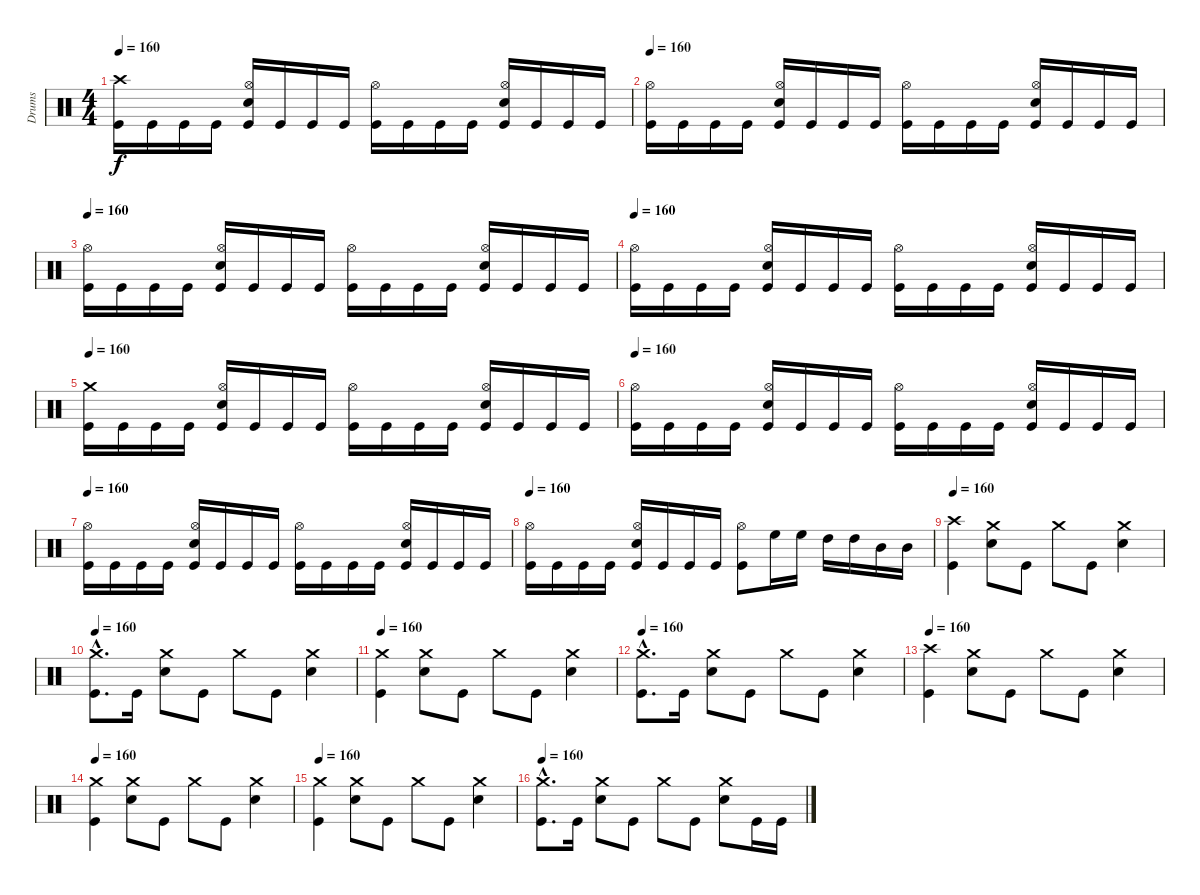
\track ("Drums" "Drums") {instrument percussion}
\staff {score}
\articulation defaults
\ts (4 4)
\tempo 160
\clef neutral
\ks c
("Crash high (hit)" "Kick (hit)").16{dy f} "Kick (hit)".16 "Kick (hit)".16 "Kick (hit)".16 ("Hi-Hat (open)" "Electric Snare (hit)" "Kick (hit)").16 "Kick (hit)".16 "Kick (hit)".16 "Kick (hit)".16 ("Hi-Hat (open)" "Kick (hit)").16 "Kick (hit)".16 "Kick (hit)".16 "Kick (hit)".16 ("Hi-Hat (open)" "Electric Snare (hit)" "Kick (hit)").16 "Kick (hit)".16 "Kick (hit)".16 "Kick (hit)".16 |
\tempo 160
("Hi-Hat (open)" "Kick (hit)").16 "Kick (hit)".16 "Kick (hit)".16 "Kick (hit)".16 ("Hi-Hat (open)" "Electric Snare (hit)" "Kick (hit)").16 "Kick (hit)".16 "Kick (hit)".16 "Kick (hit)".16 ("Hi-Hat (open)" "Kick (hit)").16 "Kick (hit)".16 "Kick (hit)".16 "Kick (hit)".16 ("Hi-Hat (open)" "Electric Snare (hit)" "Kick (hit)").16 "Kick (hit)".16 "Kick (hit)".16 "Kick (hit)".16 |
\tempo 160
("Hi-Hat (open)" "Kick (hit)").16 "Kick (hit)".16 "Kick (hit)".16 "Kick (hit)".16 ("Hi-Hat (open)" "Electric Snare (hit)" "Kick (hit)").16 "Kick (hit)".16 "Kick (hit)".16 "Kick (hit)".16 ("Hi-Hat (open)" "Kick (hit)").16 "Kick (hit)".16 "Kick (hit)".16 "Kick (hit)".16 ("Hi-Hat (open)" "Electric Snare (hit)" "Kick (hit)").16 "Kick (hit)".16 "Kick (hit)".16 "Kick (hit)".16 |
\tempo 160
("Hi-Hat (open)" "Kick (hit)").16 "Kick (hit)".16 "Kick (hit)".16 "Kick (hit)".16 ("Hi-Hat (open)" "Electric Snare (hit)" "Kick (hit)").16 "Kick (hit)".16 "Kick (hit)".16 "Kick (hit)".16 ("Hi-Hat (open)" "Kick (hit)").16 "Kick (hit)".16 "Kick (hit)".16 "Kick (hit)".16 ("Hi-Hat (open)" "Electric Snare (hit)" "Kick (hit)").16 "Kick (hit)".16 "Kick (hit)".16 "Kick (hit)".16 |
\tempo 160
("Crash medium (hit)" "Kick (hit)").16 "Kick (hit)".16 "Kick (hit)".16 "Kick (hit)".16 ("Hi-Hat (open)" "Electric Snare (hit)" "Kick (hit)").16 "Kick (hit)".16 "Kick (hit)".16 "Kick (hit)".16 ("Hi-Hat (open)" "Kick (hit)").16 "Kick (hit)".16 "Kick (hit)".16 "Kick (hit)".16 ("Hi-Hat (open)" "Electric Snare (hit)" "Kick (hit)").16 "Kick (hit)".16 "Kick (hit)".16 "Kick (hit)".16 |
\tempo 160
("Hi-Hat (open)" "Kick (hit)").16 "Kick (hit)".16 "Kick (hit)".16 "Kick (hit)".16 ("Hi-Hat (open)" "Electric Snare (hit)" "Kick (hit)").16 "Kick (hit)".16 "Kick (hit)".16 "Kick (hit)".16 ("Hi-Hat (open)" "Kick (hit)").16 "Kick (hit)".16 "Kick (hit)".16 "Kick (hit)".16 ("Hi-Hat (open)" "Electric Snare (hit)" "Kick (hit)").16 "Kick (hit)".16 "Kick (hit)".16 "Kick (hit)".16 |
\tempo 160
("Hi-Hat (open)" "Kick (hit)").16 "Kick (hit)".16 "Kick (hit)".16 "Kick (hit)".16 ("Hi-Hat (open)" "Electric Snare (hit)" "Kick (hit)").16 "Kick (hit)".16 "Kick (hit)".16 "Kick (hit)".16 ("Hi-Hat (open)" "Kick (hit)").16 "Kick (hit)".16 "Kick (hit)".16 "Kick (hit)".16 ("Hi-Hat (open)" "Electric Snare (hit)" "Kick (hit)").16 "Kick (hit)".16 "Kick (hit)".16 "Kick (hit)".16 |
\tempo 160
("Hi-Hat (open)" "Kick (hit)").16 "Kick (hit)".16 "Kick (hit)".16 "Kick (hit)".16 ("Hi-Hat (open)" "Electric Snare (hit)" "Kick (hit)").16 "Kick (hit)".16 "Kick (hit)".16 "Kick (hit)".16 ("Hi-Hat (open)" "Kick (hit)").8 "High Floor Tom (hit)".16 "High Floor Tom (hit)".16 "High Tom (hit)".16 "High Tom (hit)".16 "Mid Tom (hit)".16 "Mid Tom (hit)".16 |
\tempo 160
("Crash high (hit)" "Kick (hit)").4 ("Crash medium (hit)" "Electric Snare (hit)").8 "Kick (hit)".8 "Crash medium (hit)".8 "Kick (hit)".8 ("Crash medium (hit)" "Electric Snare (hit)").4 |
\tempo 160
("Crash medium (hit)"{hac} "Kick (hit)"{hac}).8{d} "Kick (hit)".16 ("Crash medium (hit)" "Electric Snare (hit)").8 "Kick (hit)".8 "Crash medium (hit)".8 "Kick (hit)".8 ("Crash medium (hit)" "Electric Snare (hit)").4 |
\tempo 160
("Crash medium (hit)" "Kick (hit)").4 ("Crash medium (hit)" "Electric Snare (hit)").8 "Kick (hit)".8 "Crash medium (hit)".8 "Kick (hit)".8 ("Crash medium (hit)" "Electric Snare (hit)").4 |
\tempo 160
("Crash medium (hit)"{hac} "Kick (hit)"{hac}).8{d} "Kick (hit)".16 ("Crash medium (hit)" "Electric Snare (hit)").8 "Kick (hit)".8 "Crash medium (hit)".8 "Kick (hit)".8 ("Crash medium (hit)" "Electric Snare (hit)").4 |
\tempo 160
("Crash high (hit)" "Kick (hit)").4 ("Crash medium (hit)" "Electric Snare (hit)").8 "Kick (hit)".8 "Crash medium (hit)".8 "Kick (hit)".8 ("Crash medium (hit)" "Electric Snare (hit)").4 |
\tempo 160
("Crash medium (hit)" "Kick (hit)").4 ("Crash medium (hit)" "Electric Snare (hit)").8 "Kick (hit)".8 "Crash medium (hit)".8 "Kick (hit)".8 ("Crash medium (hit)" "Electric Snare (hit)").4 |
\tempo 160
("Crash medium (hit)" "Kick (hit)").4 ("Crash medium (hit)" "Electric Snare (hit)").8 "Kick (hit)".8 "Crash medium (hit)".8 "Kick (hit)".8 ("Crash medium (hit)" "Electric Snare (hit)").4 |
\tempo 160
("Crash medium (hit)"{hac} "Kick (hit)"{hac}).8{d} "Kick (hit)".16 ("Crash medium (hit)" "Electric Snare (hit)").8 "Kick (hit)".8 "Crash medium (hit)".8 "Kick (hit)".8 ("Crash medium (hit)" "Electric Snare (hit)").8 "Kick (hit)".16 "Kick (hit)".16
